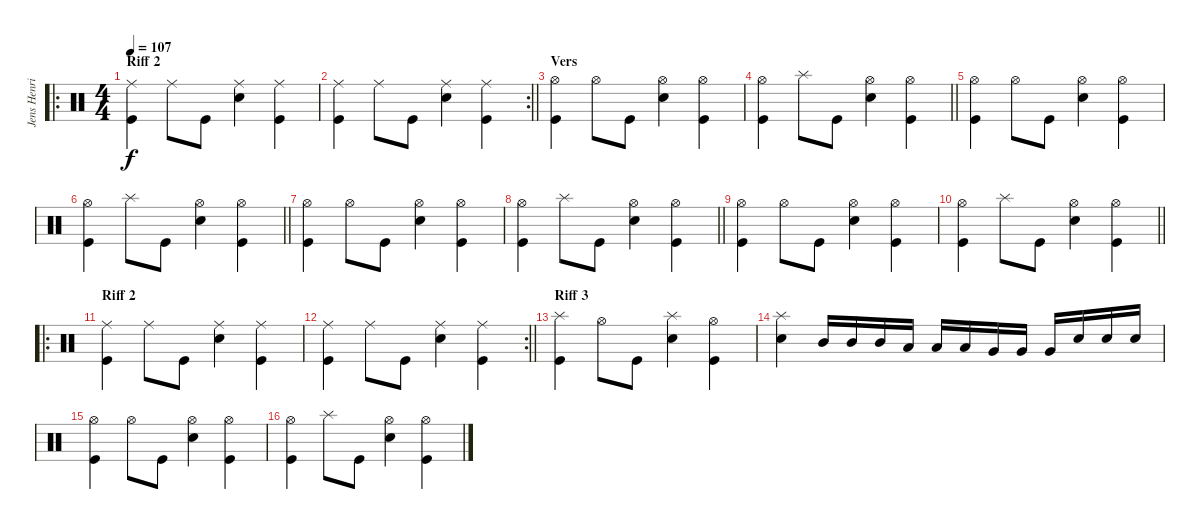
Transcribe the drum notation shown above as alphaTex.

\track ("Jens Henriksson" "Jens Henri") {instrument percussion}
\staff {score}
\articulation defaults
\ro
\ts (4 4)
\section ("" "Riff 2")
\tempo 107
\clef neutral
\ks aminor
("Ride (middle)" "Kick (hit)").4{dy f} "Ride (middle)".8 "Kick (hit)".8 ("Ride (middle)" "Snare (hit) 2").4 ("Ride (middle)" "Kick (hit)").4 |
\rc 2
\barLineRight lightlight
("Ride (middle)" "Kick (hit)").4 "Ride (middle)".8 "Kick (hit)".8 ("Ride (middle)" "Snare (hit) 2").4 ("Ride (middle)" "Kick (hit)").4 |
\section ("" "Vers")
("Hi-Hat (open)" "Kick (hit)").4 "Hi-Hat (open)".8 "Kick (hit)".8 ("Hi-Hat (open)" "Snare (hit) 2").4 ("Hi-Hat (open)" "Kick (hit)").4 |
\barLineRight lightlight
("Hi-Hat (open)" "Kick (hit)").4 "Splash (hit)".8 "Kick (hit)".8 ("Hi-Hat (open)" "Snare (hit) 2").4 ("Hi-Hat (open)" "Kick (hit)").4 |
("Hi-Hat (open)" "Kick (hit)").4 "Hi-Hat (open)".8 "Kick (hit)".8 ("Hi-Hat (open)" "Snare (hit) 2").4 ("Hi-Hat (open)" "Kick (hit)").4 |
\barLineRight lightlight
("Hi-Hat (open)" "Kick (hit)").4 "Splash (hit)".8 "Kick (hit)".8 ("Hi-Hat (open)" "Snare (hit) 2").4 ("Hi-Hat (open)" "Kick (hit)").4 |
("Hi-Hat (open)" "Kick (hit)").4 "Hi-Hat (open)".8 "Kick (hit)".8 ("Hi-Hat (open)" "Snare (hit) 2").4 ("Hi-Hat (open)" "Kick (hit)").4 |
\barLineRight lightlight
("Hi-Hat (open)" "Kick (hit)").4 "Splash (hit)".8 "Kick (hit)".8 ("Hi-Hat (open)" "Snare (hit) 2").4 ("Hi-Hat (open)" "Kick (hit)").4 |
("Hi-Hat (open)" "Kick (hit)").4 "Hi-Hat (open)".8 "Kick (hit)".8 ("Hi-Hat (open)" "Snare (hit) 2").4 ("Hi-Hat (open)" "Kick (hit)").4 |
\barLineRight lightlight
("Hi-Hat (open)" "Kick (hit)").4 "Splash (hit)".8 "Kick (hit)".8 ("Hi-Hat (open)" "Snare (hit) 2").4 ("Hi-Hat (open)" "Kick (hit)").4 |
\ro
\section ("" "Riff 2")
("Ride (middle)" "Kick (hit)").4 "Ride (middle)".8 "Kick (hit)".8 ("Ride (middle)" "Snare (hit) 2").4 ("Ride (middle)" "Kick (hit)").4 |
\rc 2
\barLineRight lightlight
("Ride (middle)" "Kick (hit)").4 "Ride (middle)".8 "Kick (hit)".8 ("Ride (middle)" "Snare (hit) 2").4 ("Ride (middle)" "Kick (hit)").4 |
\section ("" "Riff 3")
("Splash (hit)" "Kick (hit)").4 "Hi-Hat (open)".8 "Kick (hit)".8 ("Splash (hit)" "Snare (hit) 2").4 ("Hi-Hat (open)" "Kick (hit)").4 |
("Splash (hit)" "Snare (hit) 2").4 "Mid Tom (hit)".16 "Mid Tom (hit)".16 "Mid Tom (hit)".16 "Low Tom (hit)".16 "Low Tom (hit)".16 "Low Tom (hit)".16 "Very Low Tom (hit)".16 "Very Low Tom (hit)".16 "Very Low Tom (hit)".16 "Snare (hit) 2".16 "Snare (hit) 2".16 "Snare (hit) 2".16 |
("Hi-Hat (open)" "Kick (hit)").4 "Hi-Hat (open)".8 "Kick (hit)".8 ("Hi-Hat (open)" "Snare (hit) 2").4 ("Hi-Hat (open)" "Kick (hit)").4 |
("Hi-Hat (open)" "Kick (hit)").4 "Splash (hit)".8 "Kick (hit)".8 ("Hi-Hat (open)" "Snare (hit) 2").4 ("Hi-Hat (open)" "Kick (hit)").4
